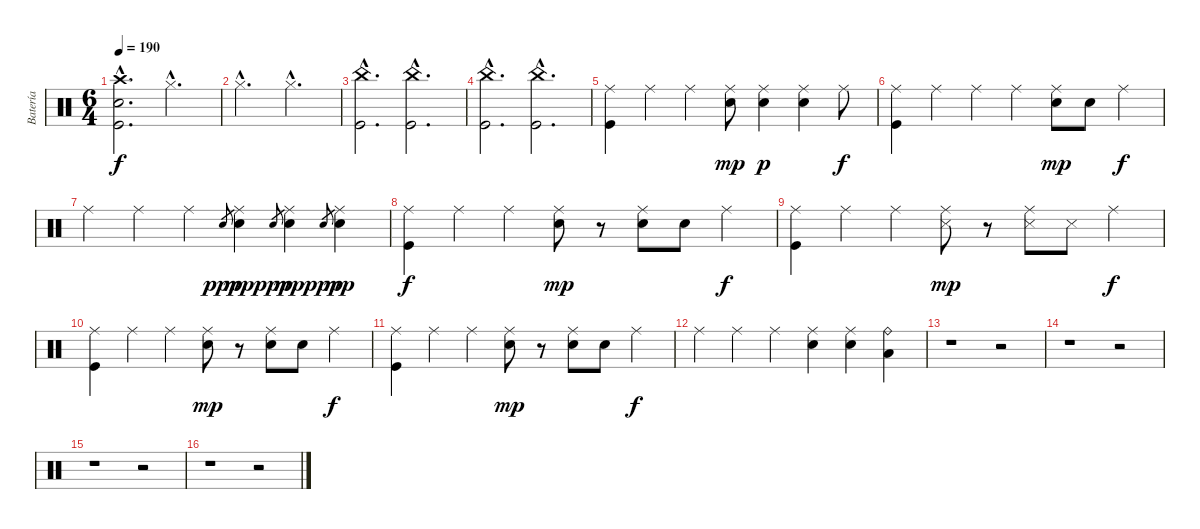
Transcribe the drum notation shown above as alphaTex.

\track ("Batería" "Batería") {instrument percussion}
\staff {score}
\articulation defaults
\ts (6 4)
\tempo 190
\clef neutral
\ks c
("Crash high (hit)"{hac} "Kick (hit)"{hac} "Snare (hit) 2"{hac}).2{d dy f} "Hi-Hat (closed)"{hac}.2{d} |
"Hi-Hat (closed)"{hac}.2{d} "Hi-Hat (closed)"{hac}.2{d} |
("China (hit)"{hac} "Kick (hit)"{hac}).2{d} ("China (hit)"{hac} "Kick (hit)"{hac}).2{d} |
("China (hit)"{hac} "Kick (hit)"{hac}).2{d} ("China (hit)"{hac} "Kick (hit)"{hac}).2{d} |
("Kick (hit)" "Ride (middle)").4 "Ride (middle)".4 "Ride (middle)".4 ("Ride (middle)" "Snare (hit) 2").8{dy mp} ("Ride (middle)" "Snare (hit) 2").4{dy p} ("Ride (middle)" "Snare (hit) 2").4 "Ride (middle)".8{dy f} |
("Ride (middle)" "Kick (hit)").4 "Ride (middle)".4 "Ride (middle)".4 "Ride (middle)".4 ("Ride (middle)" "Snare (hit) 2").8{dy mp} "Snare (hit) 2".8 "Ride (middle)".4{dy f} |
"Ride (middle)".4 "Ride (middle)".4 "Ride (middle)".4 "Snare (hit) 2".8{gr dy ppp} ("Ride (middle)" "Snare (hit) 2").4{dy mp} "Snare (hit) 2".8{gr dy ppp} ("Ride (middle)" "Snare (hit) 2").4{dy mp} "Snare (hit) 2".8{gr dy ppp} ("Ride (middle)" "Snare (hit) 2").4{dy mp} |
("Ride (middle)" "Kick (hit)").4{dy f} "Ride (middle)".4 "Ride (middle)".4 ("Ride (middle)" "Snare (hit) 2").8{dy mp} r.8 ("Ride (middle)" "Snare (hit) 2").8 "Snare (hit) 2".8 "Ride (middle)".4{dy f} |
("Ride (middle)" "Kick (hit)").4 "Ride (middle)".4 "Ride (middle)".4 ("Ride (middle)" "Snare (side stick) 3").8{dy mp} r.8 ("Ride (middle)" "Snare (side stick) 3").8 "Snare (side stick) 3".8 "Ride (middle)".4{dy f} |
("Ride (middle)" "Kick (hit)").4 "Ride (middle)".4 "Ride (middle)".4 ("Ride (middle)" "Snare (hit) 2").8{dy mp} r.8 ("Ride (middle)" "Snare (hit) 2").8 "Snare (hit) 2".8 "Ride (middle)".4{dy f} |
("Ride (middle)" "Kick (hit)").4 "Ride (middle)".4 "Ride (middle)".4 ("Ride (middle)" "Snare (hit) 2").8{dy mp} r.8 ("Ride (middle)" "Snare (hit) 2").8 "Snare (hit) 2".8 "Ride (middle)".4{dy f} |
"Ride (middle)".4 "Ride (middle)".4 "Ride (middle)".4 ("Snare (hit) 2" "Ride (middle)").4 ("Snare (hit) 2" "Ride (middle)").4 ("Low Tom (hit)" "Ride (bell)").4 |
r.1 r.2 |
r.1 r.2 |
r.1 r.2 |
r.1 r.2
